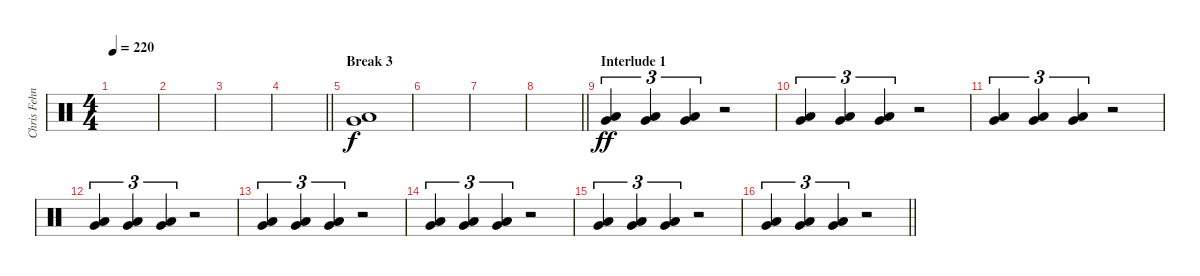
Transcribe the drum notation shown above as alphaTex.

\track ("Chris Fehn" "Chris Fehn") {instrument percussion}
\staff {score}
\articulation defaults
\ts (4 4)
\tempo 220
\clef neutral
\ks c
|
|
|
\barLineRight lightlight
|
\section ("" "Break 3")
("Very Low Tom (hit)" "Low Floor Tom (hit)").1 |
|
|
\barLineRight lightlight
|
\section ("" "Interlude 1")
("Very Low Tom (hit)" "Low Floor Tom (hit)").4{tu (3 2) dy ff} ("Very Low Tom (hit)" "Low Floor Tom (hit)").4{tu (3 2)} ("Very Low Tom (hit)" "Low Floor Tom (hit)").4{tu (3 2)} r.2 |
("Very Low Tom (hit)" "Low Floor Tom (hit)").4{tu (3 2)} ("Very Low Tom (hit)" "Low Floor Tom (hit)").4{tu (3 2)} ("Very Low Tom (hit)" "Low Floor Tom (hit)").4{tu (3 2)} r.2 |
("Very Low Tom (hit)" "Low Floor Tom (hit)").4{tu (3 2)} ("Very Low Tom (hit)" "Low Floor Tom (hit)").4{tu (3 2)} ("Very Low Tom (hit)" "Low Floor Tom (hit)").4{tu (3 2)} r.2 |
("Very Low Tom (hit)" "Low Floor Tom (hit)").4{tu (3 2)} ("Very Low Tom (hit)" "Low Floor Tom (hit)").4{tu (3 2)} ("Very Low Tom (hit)" "Low Floor Tom (hit)").4{tu (3 2)} r.2 |
("Very Low Tom (hit)" "Low Floor Tom (hit)").4{tu (3 2)} ("Very Low Tom (hit)" "Low Floor Tom (hit)").4{tu (3 2)} ("Very Low Tom (hit)" "Low Floor Tom (hit)").4{tu (3 2)} r.2 |
("Very Low Tom (hit)" "Low Floor Tom (hit)").4{tu (3 2)} ("Very Low Tom (hit)" "Low Floor Tom (hit)").4{tu (3 2)} ("Very Low Tom (hit)" "Low Floor Tom (hit)").4{tu (3 2)} r.2 |
("Very Low Tom (hit)" "Low Floor Tom (hit)").4{tu (3 2)} ("Very Low Tom (hit)" "Low Floor Tom (hit)").4{tu (3 2)} ("Very Low Tom (hit)" "Low Floor Tom (hit)").4{tu (3 2)} r.2 |
\barLineRight lightlight
("Very Low Tom (hit)" "Low Floor Tom (hit)").4{tu (3 2)} ("Very Low Tom (hit)" "Low Floor Tom (hit)").4{tu (3 2)} ("Very Low Tom (hit)" "Low Floor Tom (hit)").4{tu (3 2)} r.2
